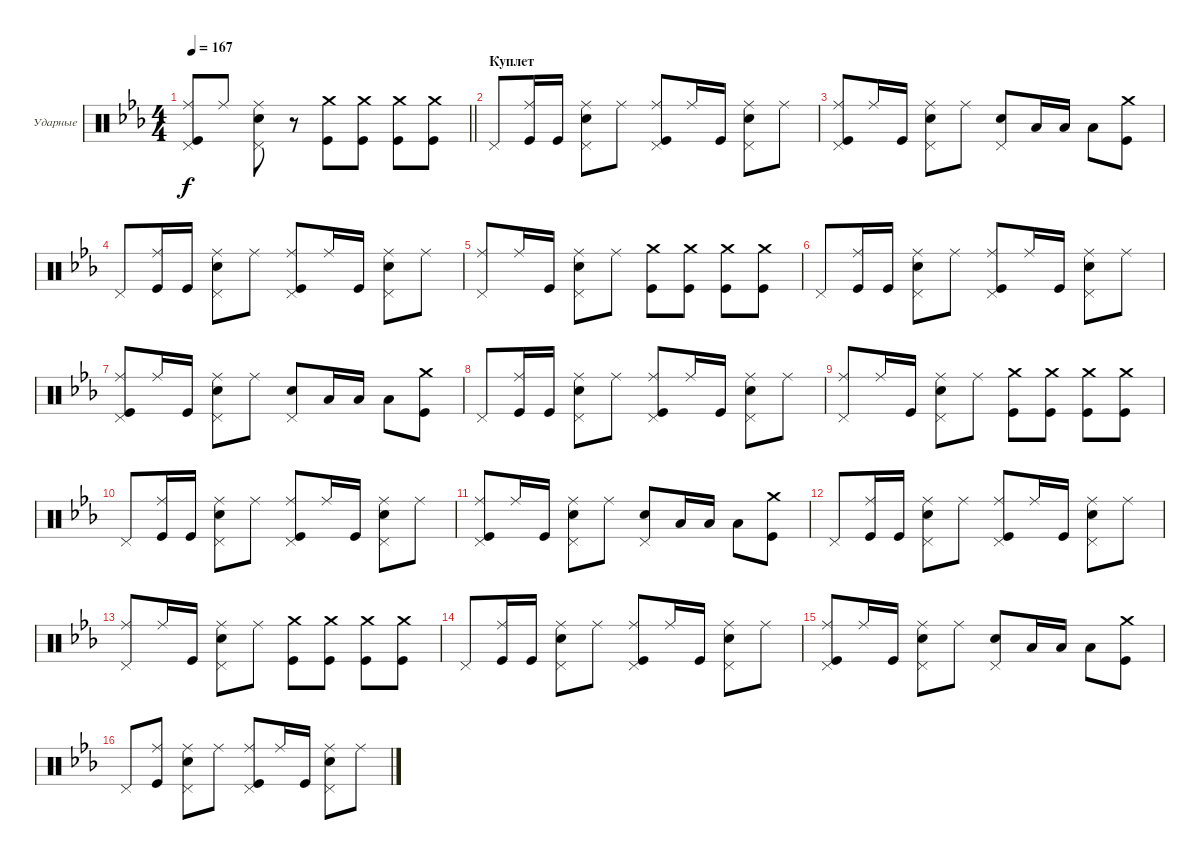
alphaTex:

\bracketExtendMode groupsimilarinstruments
\firstSystemTrackNameOrientation horizontal
\otherSystemsTrackNameOrientation horizontal
\track ("Максим Удалов" "Ударные") {instrument percussion}
\staff {score}
\articulation defaults
\ts (4 4)
\tempo 167
\clef neutral
\barLineRight lightlight
\ks cminor
("Ride (middle)" "Kick (hit)" "Pedal Hi-Hat (hit)").8{dy f} "Ride (middle)".8 ("Ride (middle)" "Snare (hit) 2" "Pedal Hi-Hat (hit)").8 r.8 ("Crash medium (hit)" "Kick (hit)").8 ("Crash medium (hit)" "Kick (hit)").8 ("Crash medium (hit)" "Kick (hit)").8 ("Crash medium (hit)" "Kick (hit)").8 |
\section ("" "Куплет")
"Pedal Hi-Hat (hit)".8 ("Ride (middle)" "Kick (hit)").16 "Kick (hit)".16 ("Ride (middle)" "Snare (hit) 2" "Pedal Hi-Hat (hit)").8 "Ride (middle)".8 ("Ride (middle)" "Kick (hit)" "Pedal Hi-Hat (hit)").8 "Ride (middle)".16 "Kick (hit)".16 ("Ride (middle)" "Snare (hit) 2" "Pedal Hi-Hat (hit)").8 "Ride (middle)".8 |
("Ride (middle)" "Kick (hit)" "Pedal Hi-Hat (hit)").8 "Ride (middle)".16 "Kick (hit)".16 ("Ride (middle)" "Snare (hit) 2" "Pedal Hi-Hat (hit)").8 "Ride (middle)".8 ("Pedal Hi-Hat (hit)" "Snare (hit) 2").8 "Low Tom (hit)".16 "Low Tom (hit)".16 "Low Tom (hit)".8 ("Crash medium (hit)" "Kick (hit)").8 |
"Pedal Hi-Hat (hit)".8 ("Ride (middle)" "Kick (hit)").16 "Kick (hit)".16 ("Ride (middle)" "Snare (hit) 2" "Pedal Hi-Hat (hit)").8 "Ride (middle)".8 ("Ride (middle)" "Kick (hit)" "Pedal Hi-Hat (hit)").8 "Ride (middle)".16 "Kick (hit)".16 ("Ride (middle)" "Snare (hit) 2" "Pedal Hi-Hat (hit)").8 "Ride (middle)".8 |
("Pedal Hi-Hat (hit)" "Ride (middle)").8 "Ride (middle)".16 "Kick (hit)".16 ("Ride (middle)" "Snare (hit) 2" "Pedal Hi-Hat (hit)").8 "Ride (middle)".8 ("Kick (hit)" "Crash medium (hit)").8 ("Crash medium (hit)" "Kick (hit)").8 ("Crash medium (hit)" "Kick (hit)").8 ("Crash medium (hit)" "Kick (hit)").8 |
"Pedal Hi-Hat (hit)".8 ("Ride (middle)" "Kick (hit)").16 "Kick (hit)".16 ("Ride (middle)" "Snare (hit) 2" "Pedal Hi-Hat (hit)").8 "Ride (middle)".8 ("Ride (middle)" "Kick (hit)" "Pedal Hi-Hat (hit)").8 "Ride (middle)".16 "Kick (hit)".16 ("Ride (middle)" "Snare (hit) 2" "Pedal Hi-Hat (hit)").8 "Ride (middle)".8 |
("Ride (middle)" "Kick (hit)" "Pedal Hi-Hat (hit)").8 "Ride (middle)".16 "Kick (hit)".16 ("Ride (middle)" "Snare (hit) 2" "Pedal Hi-Hat (hit)").8 "Ride (middle)".8 ("Pedal Hi-Hat (hit)" "Snare (hit) 2").8 "Low Tom (hit)".16 "Low Tom (hit)".16 "Low Tom (hit)".8 ("Crash medium (hit)" "Kick (hit)").8 |
"Pedal Hi-Hat (hit)".8 ("Ride (middle)" "Kick (hit)").16 "Kick (hit)".16 ("Ride (middle)" "Snare (hit) 2" "Pedal Hi-Hat (hit)").8 "Ride (middle)".8 ("Ride (middle)" "Kick (hit)" "Pedal Hi-Hat (hit)").8 "Ride (middle)".16 "Kick (hit)".16 ("Ride (middle)" "Snare (hit) 2" "Pedal Hi-Hat (hit)").8 "Ride (middle)".8 |
("Pedal Hi-Hat (hit)" "Ride (middle)").8 "Ride (middle)".16 "Kick (hit)".16 ("Ride (middle)" "Snare (hit) 2" "Pedal Hi-Hat (hit)").8 "Ride (middle)".8 ("Kick (hit)" "Crash medium (hit)").8 ("Crash medium (hit)" "Kick (hit)").8 ("Crash medium (hit)" "Kick (hit)").8 ("Crash medium (hit)" "Kick (hit)").8 |
"Pedal Hi-Hat (hit)".8 ("Ride (middle)" "Kick (hit)").16 "Kick (hit)".16 ("Ride (middle)" "Snare (hit) 2" "Pedal Hi-Hat (hit)").8 "Ride (middle)".8 ("Ride (middle)" "Kick (hit)" "Pedal Hi-Hat (hit)").8 "Ride (middle)".16 "Kick (hit)".16 ("Ride (middle)" "Snare (hit) 2" "Pedal Hi-Hat (hit)").8 "Ride (middle)".8 |
("Ride (middle)" "Kick (hit)" "Pedal Hi-Hat (hit)").8 "Ride (middle)".16 "Kick (hit)".16 ("Ride (middle)" "Snare (hit) 2" "Pedal Hi-Hat (hit)").8 "Ride (middle)".8 ("Pedal Hi-Hat (hit)" "Snare (hit) 2").8 "Low Tom (hit)".16 "Low Tom (hit)".16 "Low Tom (hit)".8 ("Crash medium (hit)" "Kick (hit)").8 |
"Pedal Hi-Hat (hit)".8 ("Ride (middle)" "Kick (hit)").16 "Kick (hit)".16 ("Ride (middle)" "Snare (hit) 2" "Pedal Hi-Hat (hit)").8 "Ride (middle)".8 ("Ride (middle)" "Kick (hit)" "Pedal Hi-Hat (hit)").8 "Ride (middle)".16 "Kick (hit)".16 ("Ride (middle)" "Snare (hit) 2" "Pedal Hi-Hat (hit)").8 "Ride (middle)".8 |
("Pedal Hi-Hat (hit)" "Ride (middle)").8 "Ride (middle)".16 "Kick (hit)".16 ("Ride (middle)" "Snare (hit) 2" "Pedal Hi-Hat (hit)").8 "Ride (middle)".8 ("Kick (hit)" "Crash medium (hit)").8 ("Crash medium (hit)" "Kick (hit)").8 ("Crash medium (hit)" "Kick (hit)").8 ("Crash medium (hit)" "Kick (hit)").8 |
"Pedal Hi-Hat (hit)".8 ("Ride (middle)" "Kick (hit)").16 "Kick (hit)".16 ("Ride (middle)" "Snare (hit) 2" "Pedal Hi-Hat (hit)").8 "Ride (middle)".8 ("Ride (middle)" "Kick (hit)" "Pedal Hi-Hat (hit)").8 "Ride (middle)".16 "Kick (hit)".16 ("Ride (middle)" "Snare (hit) 2" "Pedal Hi-Hat (hit)").8 "Ride (middle)".8 |
("Ride (middle)" "Kick (hit)" "Pedal Hi-Hat (hit)").8 "Ride (middle)".16 "Kick (hit)".16 ("Ride (middle)" "Snare (hit) 2" "Pedal Hi-Hat (hit)").8 "Ride (middle)".8 ("Pedal Hi-Hat (hit)" "Snare (hit) 2").8 "Low Tom (hit)".16 "Low Tom (hit)".16 "Low Tom (hit)".8 ("Crash medium (hit)" "Kick (hit)").8 |
"Pedal Hi-Hat (hit)".8 ("Ride (middle)" "Kick (hit)").8 ("Ride (middle)" "Snare (hit) 2" "Pedal Hi-Hat (hit)").8 "Ride (middle)".8 ("Ride (middle)" "Kick (hit)" "Pedal Hi-Hat (hit)").8 "Ride (middle)".16 "Kick (hit)".16 ("Ride (middle)" "Snare (hit) 2" "Pedal Hi-Hat (hit)").8 "Ride (middle)".8
